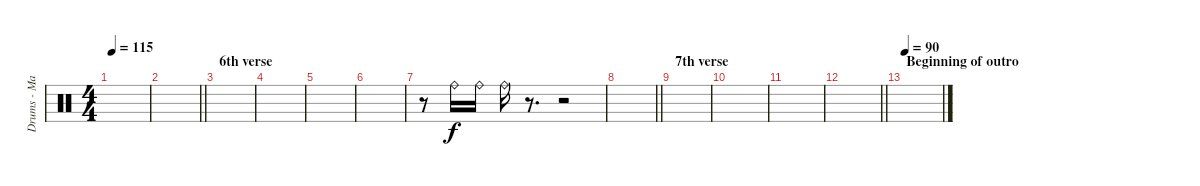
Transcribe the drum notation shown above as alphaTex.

\track ("Drums - Mario Duplantier" "Drums - Ma") {instrument percussion}
\staff {score}
\articulation defaults
\ts (4 4)
\tempo 115
\clef neutral
\ks c
|
\barLineRight lightlight
|
\section ("" "6th verse")
|
|
|
|
r.8 "Ride (bell)".16 "Ride (bell)".16 "Ride (bell)".16 r.8{d} r.2 |
\barLineRight lightlight
|
\section ("" "7th verse")
|
|
|
\barLineRight lightlight
|
\section ("" "Beginning of outro")
\tempo 90
